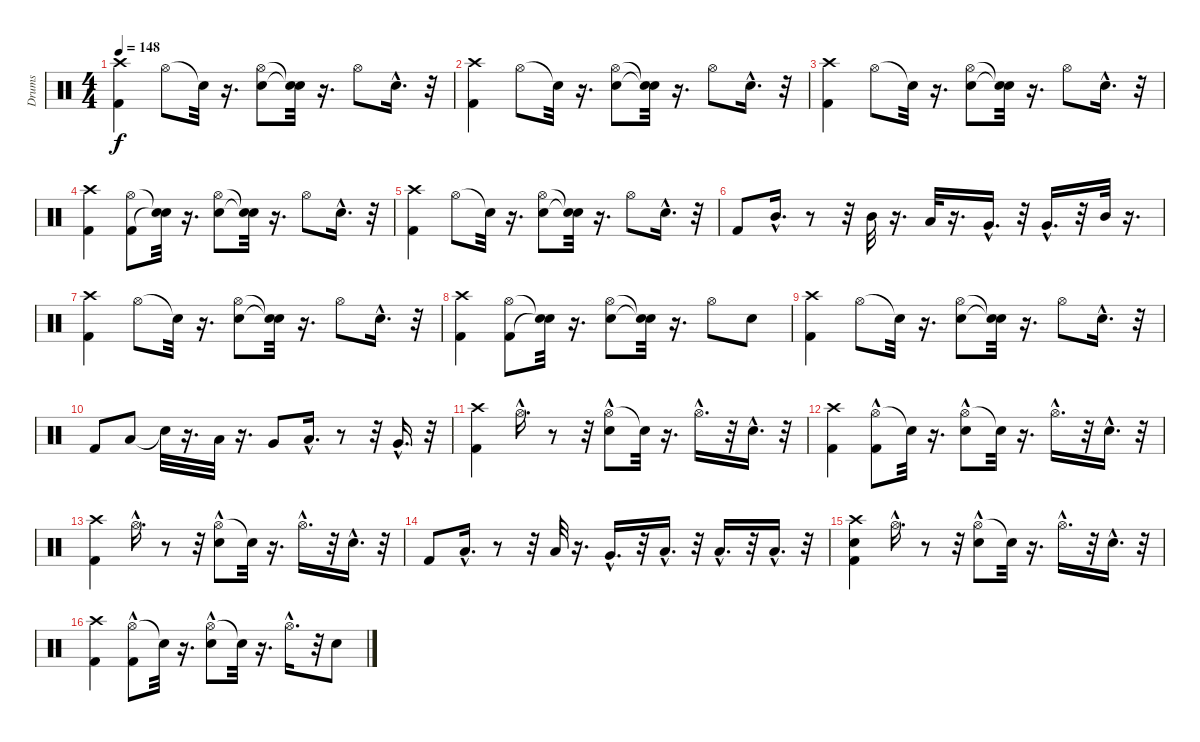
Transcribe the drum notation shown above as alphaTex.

\track ("Drums" "Drums") {instrument percussion}
\staff {score}
\articulation defaults
\ts (4 4)
\tempo 148
\clef neutral
\ks c
("Crash high (hit)" "Kick (hit) 2").4{dy f} "Hi-Hat (open)".8 "Snare (hit)"{t}.32 r.16{d} ("Hi-Hat (open)" "Snare (hit) 2").8 ("Snare (hit)"{t} "Snare (hit)"{t}).32 r.16{d} "Hi-Hat (open)".8 "Snare (hit) 2"{hac}.16{d} r.32 |
("Crash high (hit)" "Kick (hit) 2").4 "Hi-Hat (open)".8 "Snare (hit)"{t}.32 r.16{d} ("Hi-Hat (open)" "Snare (hit) 2").8 ("Snare (hit)"{t} "Snare (hit)"{t}).32 r.16{d} "Hi-Hat (open)".8 "Snare (hit) 2"{hac}.16{d} r.32 |
("Crash high (hit)" "Kick (hit) 2").4 "Hi-Hat (open)".8 "Snare (hit)"{t}.32 r.16{d} ("Hi-Hat (open)" "Snare (hit) 2").8 ("Snare (hit)"{t} "Snare (hit)"{t}).32 r.16{d} "Hi-Hat (open)".8 "Snare (hit) 2"{hac}.16{d} r.32 |
("Crash high (hit)" "Kick (hit) 2").4 ("Hi-Hat (open)" "Kick (hit) 2").8 ("Snare (hit)"{t} "Snare (hit)"{t}).32 r.16{d} ("Hi-Hat (open)" "Snare (hit) 2").8 ("Snare (hit)"{t} "Snare (hit)"{t}).32 r.16{d} "Hi-Hat (open)".8 "Snare (hit) 2"{hac}.16{d} r.32 |
("Crash high (hit)" "Kick (hit) 2").4 "Hi-Hat (open)".8 "Snare (hit)"{t}.32 r.16{d} ("Hi-Hat (open)" "Snare (hit) 2").8 ("Snare (hit)"{t} "Snare (hit)"{t}).32 r.16{d} "Hi-Hat (open)".8 "Snare (hit) 2"{hac}.16{d} r.32 |
"Kick (hit) 2".8 "Mid Tom (hit)"{hac}.16{d} r.8 r.32 "Mid Tom (hit)".32 r.16{d} "Low Tom (hit)".32 r.16{d} "Very Low Tom (hit)"{hac}.16{d} r.32 "Very Low Tom (hit)"{hac}.16{d} r.32 "Mid Tom (hit)".32 r.16{d} |
("Crash high (hit)" "Kick (hit) 2").4 "Hi-Hat (open)".8 "Snare (hit)"{t}.32 r.16{d} ("Hi-Hat (open)" "Snare (hit) 2").8 ("Snare (hit)"{t} "Snare (hit)"{t}).32 r.16{d} "Hi-Hat (open)".8 "Snare (hit) 2"{hac}.16{d} r.32 |
("Kick (hit) 2" "Crash high (hit)").4 ("Hi-Hat (open)" "Kick (hit) 2").8 ("Snare (hit)"{t} "Snare (hit)"{t}).32 r.16{d} ("Hi-Hat (open)" "Snare (hit) 2").8 ("Snare (hit)"{t} "Snare (hit)"{t}).32 r.16{d} "Hi-Hat (open)".8 "Snare (hit) 2".8 |
("Kick (hit) 2" "Crash high (hit)").4 "Hi-Hat (open)".8 "Snare (hit)"{t}.32 r.16{d} ("Hi-Hat (open)" "Snare (hit) 2").8 ("Snare (hit)"{t} "Snare (hit)"{t}).32 r.16{d} "Hi-Hat (open)".8 "Snare (hit) 2"{hac}.16{d} r.32 |
"Kick (hit) 2".8 "Low Tom (hit)".8 "Snare (hit)"{t}.32 r.16{d} "Low Tom (hit)".32 r.16{d} "Very Low Tom (hit)".8 "Low Tom (hit)"{hac}.16{d} r.8 r.32 "Very Low Tom (hit)"{hac}.16{d} r.32 |
("Crash high (hit)" "Kick (hit) 2").4 "Hi-Hat (open)"{hac}.16{d} r.8 r.32 ("Hi-Hat (open)"{hac} "Snare (hit) 2").8 "Snare (hit)"{t}.32 r.16{d} "Hi-Hat (open)"{hac}.16{d} r.32 "Snare (hit) 2"{hac}.16{d} r.32 |
("Kick (hit) 2" "Crash high (hit)").4 ("Hi-Hat (open)"{hac} "Kick (hit) 2").8 "Snare (hit)"{t}.32 r.16{d} ("Hi-Hat (open)"{hac} "Snare (hit) 2").8 "Snare (hit)"{t}.32 r.16{d} "Hi-Hat (open)"{hac}.16{d} r.32 "Snare (hit) 2"{hac}.16{d} r.32 |
("Crash high (hit)" "Kick (hit) 2").4 "Hi-Hat (open)"{hac}.16{d} r.8 r.32 ("Hi-Hat (open)"{hac} "Snare (hit) 2").8 "Snare (hit)"{t}.32 r.16{d} "Hi-Hat (open)"{hac}.16{d} r.32 "Snare (hit) 2"{hac}.16{d} r.32 |
"Kick (hit) 2".8 "Low Tom (hit)"{hac}.16{d} r.8 r.32 "Low Tom (hit)".32 r.16{d} "Very Low Tom (hit)"{hac}.16{d} r.32 "Low Floor Tom (hit)"{hac}.16{d} r.32 "Low Floor Tom (hit)"{hac}.16{d} r.32 "Low Tom (hit)"{hac}.16{d} r.32 |
("Snare (hit) 2" "Crash high (hit)" "Kick (hit) 2").4 "Hi-Hat (open)"{hac}.16{d} r.8 r.32 ("Hi-Hat (open)"{hac} "Snare (hit) 2").8 "Snare (hit)"{t}.32 r.16{d} "Hi-Hat (open)"{hac}.16{d} r.32 "Snare (hit) 2"{hac}.16{d} r.32 |
("Kick (hit) 2" "Crash high (hit)").4 ("Hi-Hat (open)"{hac} "Kick (hit) 2").8 "Snare (hit)"{t}.32 r.16{d} ("Hi-Hat (open)"{hac} "Snare (hit) 2").8 "Snare (hit)"{t}.32 r.16{d} "Hi-Hat (open)"{hac}.16{d} r.32 "Snare (hit) 2".8
